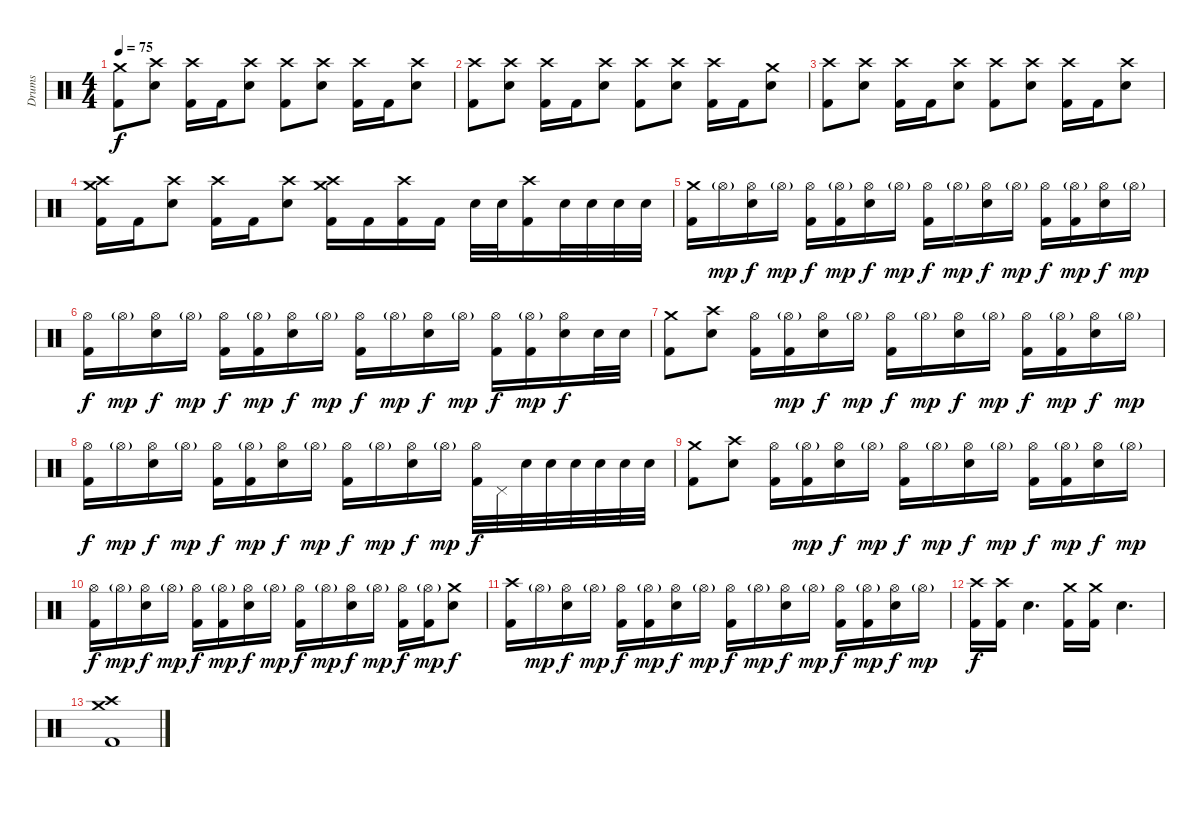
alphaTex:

\track ("Drums" "Drums") {instrument percussion bank 34}
\staff {score}
\articulation defaults
\ts (4 4)
\tempo 75
\clef neutral
\ks c
("Crash medium (hit)" "Kick (hit) 2").8{dy f} ("Crash high (hit)" "Electric Snare (hit)").8 ("Crash high (hit)" "Kick (hit) 2").16 "Kick (hit) 2".16 ("Crash high (hit)" "Electric Snare (hit)").8 ("Crash high (hit)" "Kick (hit) 2").8 ("Crash high (hit)" "Electric Snare (hit)").8 ("Crash high (hit)" "Kick (hit) 2").16 "Kick (hit) 2".16 ("Crash high (hit)" "Electric Snare (hit)").8 |
("Crash high (hit)" "Kick (hit) 2").8 ("Crash high (hit)" "Electric Snare (hit)").8 ("Crash high (hit)" "Kick (hit) 2").16 "Kick (hit) 2".16 ("Crash high (hit)" "Electric Snare (hit)").8 ("Crash high (hit)" "Kick (hit) 2").8 ("Crash high (hit)" "Electric Snare (hit)").8 ("Crash high (hit)" "Kick (hit) 2").16 "Kick (hit) 2".16 ("Crash medium (hit)" "Electric Snare (hit)").8 |
("Crash high (hit)" "Kick (hit) 2").8 ("Crash high (hit)" "Electric Snare (hit)").8 ("Crash high (hit)" "Kick (hit) 2").16 "Kick (hit) 2".16 ("Crash high (hit)" "Electric Snare (hit)").8 ("Crash high (hit)" "Kick (hit) 2").8 ("Crash high (hit)" "Electric Snare (hit)").8 ("Crash high (hit)" "Kick (hit) 2").16 "Kick (hit) 2".16 ("Crash high (hit)" "Electric Snare (hit)").8 |
("Crash medium (hit)" "Crash high (hit)" "Kick (hit) 2").16 "Kick (hit) 2".16 ("Crash high (hit)" "Electric Snare (hit)").8 ("Crash high (hit)" "Kick (hit) 2").16 "Kick (hit) 2".16 ("Crash high (hit)" "Electric Snare (hit)").8 ("Crash medium (hit)" "Crash high (hit)" "Kick (hit) 2").16 "Kick (hit) 2".16 ("Crash high (hit)" "Kick (hit) 2").16 "Kick (hit) 2".16 "Electric Snare (hit)".32 "Electric Snare (hit)".32 ("Crash high (hit)" "Kick (hit) 2").16 "Electric Snare (hit)".32 "Electric Snare (hit)".32 "Electric Snare (hit)".32 "Electric Snare (hit)".32 |
("Crash medium (hit)" "Kick (hit) 2").16 "Hi-Hat (open)"{g}.16{dy mp} ("Hi-Hat (open)" "Electric Snare (hit)").16{dy f} "Hi-Hat (open)"{g}.16{dy mp} ("Hi-Hat (open)" "Kick (hit) 2").16{dy f} ("Hi-Hat (open)"{g} "Kick (hit) 2").16{dy mp} ("Hi-Hat (open)" "Electric Snare (hit)").16{dy f} "Hi-Hat (open)"{g}.16{dy mp} ("Hi-Hat (open)" "Kick (hit) 2").16{dy f} "Hi-Hat (open)"{g}.16{dy mp} ("Hi-Hat (open)" "Electric Snare (hit)").16{dy f} "Hi-Hat (open)"{g}.16{dy mp} ("Hi-Hat (open)" "Kick (hit) 2").16{dy f} ("Hi-Hat (open)"{g} "Kick (hit) 2").16{dy mp} ("Hi-Hat (open)" "Electric Snare (hit)").16{dy f} "Hi-Hat (open)"{g}.16{dy mp} |
("Hi-Hat (open)" "Kick (hit) 2").16{dy f} "Hi-Hat (open)"{g}.16{dy mp} ("Hi-Hat (open)" "Electric Snare (hit)").16{dy f} "Hi-Hat (open)"{g}.16{dy mp} ("Hi-Hat (open)" "Kick (hit) 2").16{dy f} ("Hi-Hat (open)"{g} "Kick (hit) 2").16{dy mp} ("Hi-Hat (open)" "Electric Snare (hit)").16{dy f} "Hi-Hat (open)"{g}.16{dy mp} ("Hi-Hat (open)" "Kick (hit) 2").16{dy f} "Hi-Hat (open)"{g}.16{dy mp} ("Hi-Hat (open)" "Electric Snare (hit)").16{dy f} "Hi-Hat (open)"{g}.16{dy mp} ("Hi-Hat (open)" "Kick (hit) 2").16{dy f} ("Hi-Hat (open)"{g} "Kick (hit) 2").16{dy mp} ("Hi-Hat (open)" "Electric Snare (hit)").16{dy f} "Electric Snare (hit)".32 "Electric Snare (hit)".32 |
("Crash medium (hit)" "Kick (hit) 2").8 ("Crash high (hit)" "Electric Snare (hit)").8 ("Hi-Hat (open)" "Kick (hit) 2").16 ("Hi-Hat (open)"{g} "Kick (hit) 2").16{dy mp} ("Hi-Hat (open)" "Electric Snare (hit)").16{dy f} "Hi-Hat (open)"{g}.16{dy mp} ("Hi-Hat (open)" "Kick (hit) 2").16{dy f} "Hi-Hat (open)"{g}.16{dy mp} ("Hi-Hat (open)" "Electric Snare (hit)").16{dy f} "Hi-Hat (open)"{g}.16{dy mp} ("Hi-Hat (open)" "Kick (hit) 2").16{dy f} ("Hi-Hat (open)"{g} "Kick (hit) 2").16{dy mp} ("Hi-Hat (open)" "Electric Snare (hit)").16{dy f} "Hi-Hat (open)"{g}.16{dy mp} |
("Hi-Hat (open)" "Kick (hit) 2").16{dy f} "Hi-Hat (open)"{g}.16{dy mp} ("Hi-Hat (open)" "Electric Snare (hit)").16{dy f} "Hi-Hat (open)"{g}.16{dy mp} ("Hi-Hat (open)" "Kick (hit) 2").16{dy f} ("Hi-Hat (open)"{g} "Kick (hit) 2").16{dy mp} ("Hi-Hat (open)" "Electric Snare (hit)").16{dy f} "Hi-Hat (open)"{g}.16{dy mp} ("Hi-Hat (open)" "Kick (hit) 2").16{dy f} "Hi-Hat (open)"{g}.16{dy mp} ("Hi-Hat (open)" "Electric Snare (hit)").16{dy f} "Hi-Hat (open)"{g}.16{dy mp} ("Hi-Hat (open)" "Kick (hit) 2").32{dy f} "Pedal Hi-Hat (hit)".32 "Electric Snare (hit)".32 "Electric Snare (hit)".32 "Electric Snare (hit)".32 "Electric Snare (hit)".32 "Electric Snare (hit)".32 "Electric Snare (hit)".32 |
("Crash medium (hit)" "Kick (hit) 2").8 ("Crash high (hit)" "Electric Snare (hit)").8 ("Hi-Hat (open)" "Kick (hit) 2").16 ("Hi-Hat (open)"{g} "Kick (hit) 2").16{dy mp} ("Hi-Hat (open)" "Electric Snare (hit)").16{dy f} "Hi-Hat (open)"{g}.16{dy mp} ("Hi-Hat (open)" "Kick (hit) 2").16{dy f} "Hi-Hat (open)"{g}.16{dy mp} ("Hi-Hat (open)" "Electric Snare (hit)").16{dy f} "Hi-Hat (open)"{g}.16{dy mp} ("Hi-Hat (open)" "Kick (hit) 2").16{dy f} ("Hi-Hat (open)"{g} "Kick (hit) 2").16{dy mp} ("Hi-Hat (open)" "Electric Snare (hit)").16{dy f} "Hi-Hat (open)"{g}.16{dy mp} |
("Hi-Hat (open)" "Kick (hit) 2").16{dy f} "Hi-Hat (open)"{g}.16{dy mp} ("Hi-Hat (open)" "Electric Snare (hit)").16{dy f} "Hi-Hat (open)"{g}.16{dy mp} ("Hi-Hat (open)" "Kick (hit) 2").16{dy f} ("Hi-Hat (open)"{g} "Kick (hit) 2").16{dy mp} ("Hi-Hat (open)" "Electric Snare (hit)").16{dy f} "Hi-Hat (open)"{g}.16{dy mp} ("Hi-Hat (open)" "Kick (hit) 2").16{dy f} "Hi-Hat (open)"{g}.16{dy mp} ("Hi-Hat (open)" "Electric Snare (hit)").16{dy f} "Hi-Hat (open)"{g}.16{dy mp} ("Hi-Hat (open)" "Kick (hit) 2").16{dy f} ("Hi-Hat (open)"{g} "Kick (hit) 2").16{dy mp} ("Crash medium (hit)" "Electric Snare (hit)").8{dy f} |
("Crash high (hit)" "Kick (hit) 2").16 "Hi-Hat (open)"{g}.16{dy mp} ("Hi-Hat (open)" "Electric Snare (hit)").16{dy f} "Hi-Hat (open)"{g}.16{dy mp} ("Hi-Hat (open)" "Kick (hit) 2").16{dy f} ("Hi-Hat (open)"{g} "Kick (hit) 2").16{dy mp} ("Hi-Hat (open)" "Electric Snare (hit)").16{dy f} "Hi-Hat (open)"{g}.16{dy mp} ("Hi-Hat (open)" "Kick (hit) 2").16{dy f} "Hi-Hat (open)"{g}.16{dy mp} ("Hi-Hat (open)" "Electric Snare (hit)").16{dy f} "Hi-Hat (open)"{g}.16{dy mp} ("Hi-Hat (open)" "Kick (hit) 2").16{dy f} ("Hi-Hat (open)"{g} "Kick (hit) 2").16{dy mp} ("Hi-Hat (open)" "Electric Snare (hit)").16{dy f} "Hi-Hat (open)"{g}.16{dy mp} |
("Crash high (hit)" "Kick (hit) 2").16{dy f} ("Crash high (hit)" "Kick (hit) 2").16 "Snare (hit)".4{d volume 0} ("Crash medium (hit)" "Kick (hit) 2").16{volume 16} ("Crash medium (hit)" "Kick (hit) 2").16 "Snare (hit)".4{d volume 0} |
("Crash medium (hit)" "Crash high (hit)" "Kick (hit) 2").1{volume 16}
